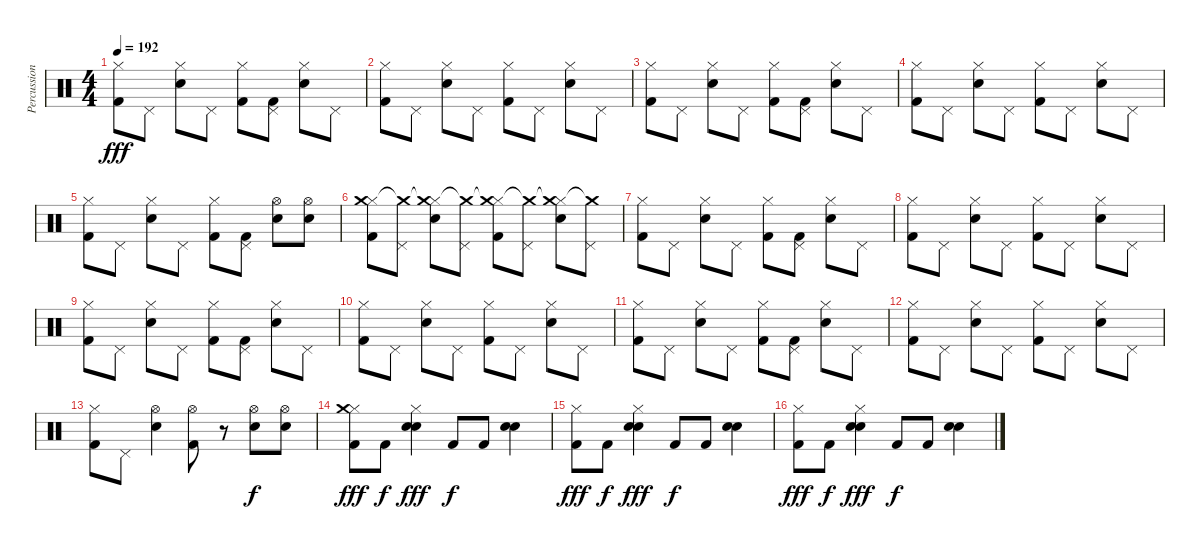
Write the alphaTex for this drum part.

\track ("Percussion" "Percussion") {instrument percussion}
\staff {score}
\articulation defaults
\ts (4 4)
\tempo 192
\clef neutral
\ks c
("Hi-Hat (closed)" "Kick (hit) 2").8{dy fff} "Pedal Hi-Hat (hit)".8 ("Hi-Hat (closed)" "Snare (hit) 2").8 "Pedal Hi-Hat (hit)".8 ("Hi-Hat (closed)" "Kick (hit) 2").8 ("Pedal Hi-Hat (hit)" "Kick (hit) 2").8 ("Hi-Hat (closed)" "Snare (hit) 2").8 "Pedal Hi-Hat (hit)".8 |
("Hi-Hat (closed)" "Kick (hit) 2").8 "Pedal Hi-Hat (hit)".8 ("Hi-Hat (closed)" "Snare (hit) 2").8 "Pedal Hi-Hat (hit)".8 ("Hi-Hat (closed)" "Kick (hit) 2").8 "Pedal Hi-Hat (hit)".8 ("Hi-Hat (closed)" "Snare (hit) 2").8 "Pedal Hi-Hat (hit)".8 |
("Hi-Hat (closed)" "Kick (hit) 2").8 "Pedal Hi-Hat (hit)".8 ("Hi-Hat (closed)" "Snare (hit) 2").8 "Pedal Hi-Hat (hit)".8 ("Hi-Hat (closed)" "Kick (hit) 2").8 ("Pedal Hi-Hat (hit)" "Kick (hit) 2").8 ("Hi-Hat (closed)" "Snare (hit) 2").8 "Pedal Hi-Hat (hit)".8 |
("Hi-Hat (closed)" "Kick (hit) 2").8 "Pedal Hi-Hat (hit)".8 ("Hi-Hat (closed)" "Snare (hit) 2").8 "Pedal Hi-Hat (hit)".8 ("Hi-Hat (closed)" "Kick (hit) 2").8 "Pedal Hi-Hat (hit)".8 ("Hi-Hat (closed)" "Snare (hit) 2").8 "Pedal Hi-Hat (hit)".8 |
("Hi-Hat (closed)" "Kick (hit) 2").8 "Pedal Hi-Hat (hit)".8 ("Hi-Hat (closed)" "Snare (hit) 2").8 "Pedal Hi-Hat (hit)".8 ("Hi-Hat (closed)" "Kick (hit) 2").8 ("Pedal Hi-Hat (hit)" "Kick (hit) 2").8 ("Hi-Hat (open)" "Snare (hit) 2").8 ("Hi-Hat (open)" "Snare (hit) 2").8 |
("Hi-Hat (closed)" "Crash medium (hit)" "Kick (hit) 2").8 ("Pedal Hi-Hat (hit)" "Crash medium (hit)"{t}).8 ("Hi-Hat (closed)" "Crash medium (hit)"{t} "Snare (hit) 2").8 ("Pedal Hi-Hat (hit)" "Crash medium (hit)"{t}).8 ("Hi-Hat (closed)" "Crash medium (hit)"{t} "Kick (hit) 2").8 ("Pedal Hi-Hat (hit)" "Crash medium (hit)"{t}).8 ("Hi-Hat (closed)" "Crash medium (hit)"{t} "Snare (hit) 2").8 ("Pedal Hi-Hat (hit)" "Crash medium (hit)"{t}).8 |
("Hi-Hat (closed)" "Kick (hit) 2").8 "Pedal Hi-Hat (hit)".8 ("Hi-Hat (closed)" "Snare (hit) 2").8 "Pedal Hi-Hat (hit)".8 ("Hi-Hat (closed)" "Kick (hit) 2").8 ("Pedal Hi-Hat (hit)" "Kick (hit) 2").8 ("Hi-Hat (closed)" "Snare (hit) 2").8 "Pedal Hi-Hat (hit)".8 |
("Hi-Hat (closed)" "Kick (hit) 2").8 "Pedal Hi-Hat (hit)".8 ("Hi-Hat (closed)" "Snare (hit) 2").8 "Pedal Hi-Hat (hit)".8 ("Hi-Hat (closed)" "Kick (hit) 2").8 "Pedal Hi-Hat (hit)".8 ("Hi-Hat (closed)" "Snare (hit) 2").8 "Pedal Hi-Hat (hit)".8 |
("Hi-Hat (closed)" "Kick (hit) 2").8 "Pedal Hi-Hat (hit)".8 ("Hi-Hat (closed)" "Snare (hit) 2").8 "Pedal Hi-Hat (hit)".8 ("Hi-Hat (closed)" "Kick (hit) 2").8 ("Pedal Hi-Hat (hit)" "Kick (hit) 2").8 ("Hi-Hat (closed)" "Snare (hit) 2").8 "Pedal Hi-Hat (hit)".8 |
("Hi-Hat (closed)" "Kick (hit) 2").8 "Pedal Hi-Hat (hit)".8 ("Hi-Hat (closed)" "Snare (hit) 2").8 "Pedal Hi-Hat (hit)".8 ("Hi-Hat (closed)" "Kick (hit) 2").8 "Pedal Hi-Hat (hit)".8 ("Hi-Hat (closed)" "Snare (hit) 2").8 "Pedal Hi-Hat (hit)".8 |
("Hi-Hat (closed)" "Kick (hit) 2").8 "Pedal Hi-Hat (hit)".8 ("Hi-Hat (closed)" "Snare (hit) 2").8 "Pedal Hi-Hat (hit)".8 ("Hi-Hat (closed)" "Kick (hit) 2").8 ("Pedal Hi-Hat (hit)" "Kick (hit) 2").8 ("Hi-Hat (closed)" "Snare (hit) 2").8 "Pedal Hi-Hat (hit)".8 |
("Hi-Hat (closed)" "Kick (hit) 2").8 "Pedal Hi-Hat (hit)".8 ("Hi-Hat (closed)" "Snare (hit) 2").8 "Pedal Hi-Hat (hit)".8 ("Hi-Hat (closed)" "Kick (hit) 2").8 "Pedal Hi-Hat (hit)".8 ("Hi-Hat (closed)" "Snare (hit) 2").8 "Pedal Hi-Hat (hit)".8 |
("Hi-Hat (closed)" "Kick (hit) 2").8 "Pedal Hi-Hat (hit)".8 ("Hi-Hat (open)" "Snare (hit) 2").4 ("Hi-Hat (open)" "Kick (hit) 2").8 r.8 ("Hi-Hat (open)" "Snare (hit) 2").8{dy f} ("Hi-Hat (open)" "Snare (hit) 2").8 |
("Hi-Hat (closed)" "Crash medium (hit)" "Kick (hit) 2").8{dy fff} "Kick (hit) 2".8{dy f} ("Hi-Hat (closed)" "Electric Snare (hit)" "Electric Snare (hit)").4{dy fff} "Kick (hit) 2".8{dy f} "Kick (hit) 2".8 ("Electric Snare (hit)" "Electric Snare (hit)").4 |
("Hi-Hat (closed)" "Kick (hit) 2").8{dy fff} "Kick (hit) 2".8{dy f} ("Hi-Hat (closed)" "Electric Snare (hit)" "Electric Snare (hit)").4{dy fff} "Kick (hit) 2".8{dy f} "Kick (hit) 2".8 ("Electric Snare (hit)" "Electric Snare (hit)").4 |
("Hi-Hat (closed)" "Kick (hit) 2").8{dy fff} "Kick (hit) 2".8{dy f} ("Hi-Hat (closed)" "Electric Snare (hit)" "Electric Snare (hit)").4{dy fff} "Kick (hit) 2".8{dy f} "Kick (hit) 2".8 ("Electric Snare (hit)" "Electric Snare (hit)").4
